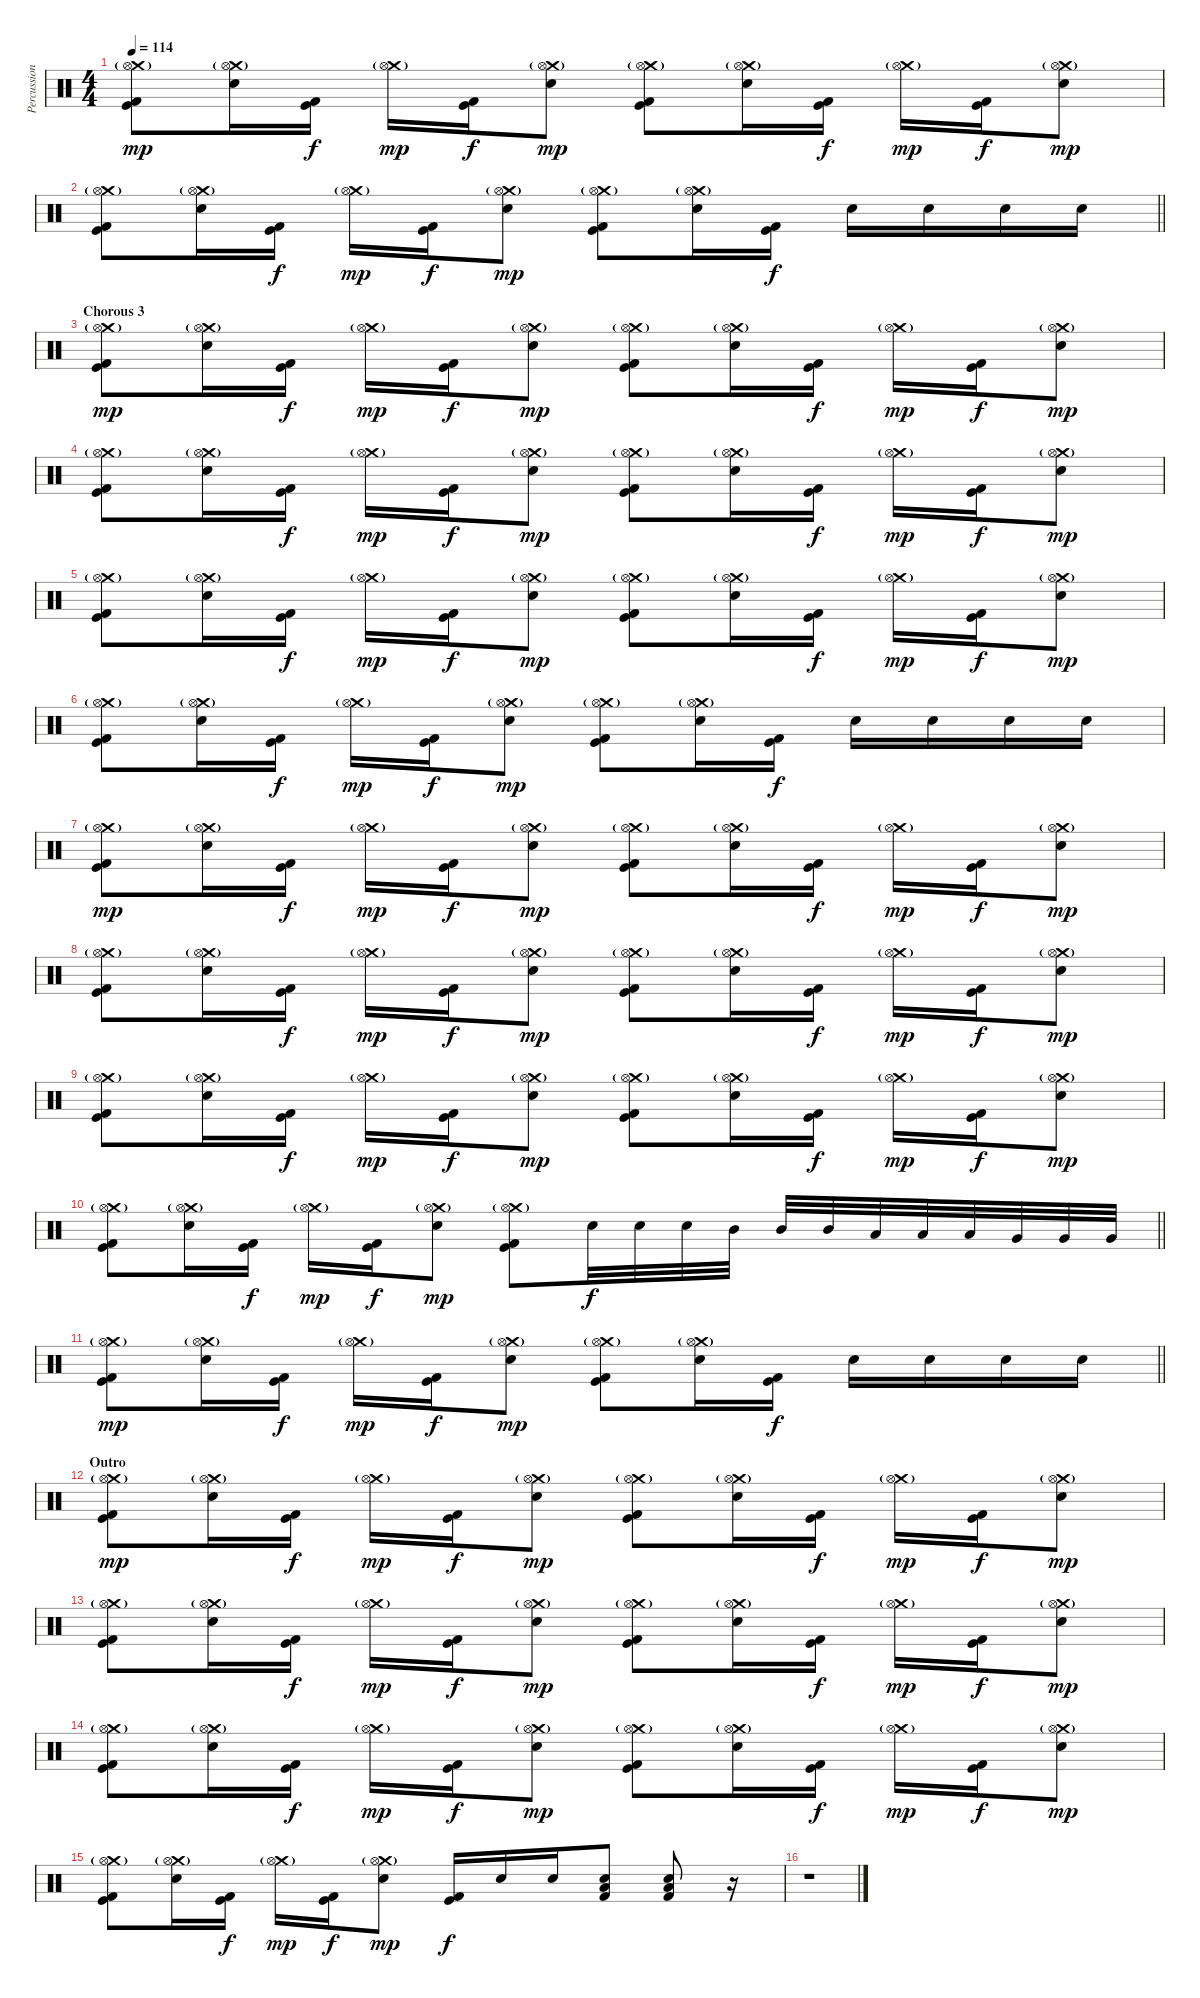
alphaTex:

\track ("Percussion" "Percussion") {instrument percussion}
\staff {score}
\articulation defaults
\ts (4 4)
\tempo 114
\clef neutral
\ks c
("Crash medium (hit)"{g} "Hi-Hat (open)" "Kick (hit)" "Kick (hit) 2").8{dy mp} ("Crash medium (hit)"{g} "Hi-Hat (open)" "Electric Snare (hit)").16 ("Kick (hit)" "Kick (hit) 2").16{dy f} ("Crash medium (hit)"{g} "Hi-Hat (open)").16{dy mp} ("Kick (hit)" "Kick (hit) 2").16{dy f} ("Crash medium (hit)"{g} "Hi-Hat (open)" "Electric Snare (hit)").8{dy mp} ("Crash medium (hit)"{g} "Hi-Hat (open)" "Kick (hit)" "Kick (hit) 2").8 ("Crash medium (hit)"{g} "Hi-Hat (open)" "Electric Snare (hit)").16 ("Kick (hit)" "Kick (hit) 2").16{dy f} ("Crash medium (hit)"{g} "Hi-Hat (open)").16{dy mp} ("Kick (hit)" "Kick (hit) 2").16{dy f} ("Crash medium (hit)"{g} "Hi-Hat (open)" "Electric Snare (hit)").8{dy mp} |
\barLineRight lightlight
("Crash medium (hit)"{g} "Hi-Hat (open)" "Kick (hit)" "Kick (hit) 2").8 ("Crash medium (hit)"{g} "Hi-Hat (open)" "Electric Snare (hit)").16 ("Kick (hit)" "Kick (hit) 2").16{dy f} ("Crash medium (hit)"{g} "Hi-Hat (open)").16{dy mp} ("Kick (hit)" "Kick (hit) 2").16{dy f} ("Crash medium (hit)"{g} "Hi-Hat (open)" "Electric Snare (hit)").8{dy mp} ("Crash medium (hit)"{g} "Hi-Hat (open)" "Kick (hit)" "Kick (hit) 2").8 ("Crash medium (hit)"{g} "Hi-Hat (open)" "Electric Snare (hit)").16 ("Kick (hit)" "Kick (hit) 2").16{dy f} "Electric Snare (hit)".16 "Electric Snare (hit)".16 "Electric Snare (hit)".16 "Electric Snare (hit)".16 |
\section ("" "Chorous 3")
("Crash medium (hit)"{g} "Hi-Hat (open)" "Kick (hit)" "Kick (hit) 2").8{dy mp} ("Crash medium (hit)"{g} "Hi-Hat (open)" "Electric Snare (hit)").16 ("Kick (hit)" "Kick (hit) 2").16{dy f} ("Crash medium (hit)"{g} "Hi-Hat (open)").16{dy mp} ("Kick (hit)" "Kick (hit) 2").16{dy f} ("Crash medium (hit)"{g} "Hi-Hat (open)" "Electric Snare (hit)").8{dy mp} ("Crash medium (hit)"{g} "Hi-Hat (open)" "Kick (hit)" "Kick (hit) 2").8 ("Crash medium (hit)"{g} "Hi-Hat (open)" "Electric Snare (hit)").16 ("Kick (hit)" "Kick (hit) 2").16{dy f} ("Crash medium (hit)"{g} "Hi-Hat (open)").16{dy mp} ("Kick (hit)" "Kick (hit) 2").16{dy f} ("Crash medium (hit)"{g} "Hi-Hat (open)" "Electric Snare (hit)").8{dy mp} |
("Crash medium (hit)"{g} "Hi-Hat (open)" "Kick (hit)" "Kick (hit) 2").8 ("Crash medium (hit)"{g} "Hi-Hat (open)" "Electric Snare (hit)").16 ("Kick (hit)" "Kick (hit) 2").16{dy f} ("Crash medium (hit)"{g} "Hi-Hat (open)").16{dy mp} ("Kick (hit)" "Kick (hit) 2").16{dy f} ("Crash medium (hit)"{g} "Hi-Hat (open)" "Electric Snare (hit)").8{dy mp} ("Crash medium (hit)"{g} "Hi-Hat (open)" "Kick (hit)" "Kick (hit) 2").8 ("Crash medium (hit)"{g} "Hi-Hat (open)" "Electric Snare (hit)").16 ("Kick (hit)" "Kick (hit) 2").16{dy f} ("Crash medium (hit)"{g} "Hi-Hat (open)").16{dy mp} ("Kick (hit)" "Kick (hit) 2").16{dy f} ("Crash medium (hit)"{g} "Hi-Hat (open)" "Electric Snare (hit)").8{dy mp} |
("Crash medium (hit)"{g} "Hi-Hat (open)" "Kick (hit)" "Kick (hit) 2").8 ("Crash medium (hit)"{g} "Hi-Hat (open)" "Electric Snare (hit)").16 ("Kick (hit)" "Kick (hit) 2").16{dy f} ("Crash medium (hit)"{g} "Hi-Hat (open)").16{dy mp} ("Kick (hit)" "Kick (hit) 2").16{dy f} ("Crash medium (hit)"{g} "Hi-Hat (open)" "Electric Snare (hit)").8{dy mp} ("Crash medium (hit)"{g} "Hi-Hat (open)" "Kick (hit)" "Kick (hit) 2").8 ("Crash medium (hit)"{g} "Hi-Hat (open)" "Electric Snare (hit)").16 ("Kick (hit)" "Kick (hit) 2").16{dy f} ("Crash medium (hit)"{g} "Hi-Hat (open)").16{dy mp} ("Kick (hit)" "Kick (hit) 2").16{dy f} ("Crash medium (hit)"{g} "Hi-Hat (open)" "Electric Snare (hit)").8{dy mp} |
("Crash medium (hit)"{g} "Hi-Hat (open)" "Kick (hit)" "Kick (hit) 2").8 ("Crash medium (hit)"{g} "Hi-Hat (open)" "Electric Snare (hit)").16 ("Kick (hit)" "Kick (hit) 2").16{dy f} ("Crash medium (hit)"{g} "Hi-Hat (open)").16{dy mp} ("Kick (hit)" "Kick (hit) 2").16{dy f} ("Crash medium (hit)"{g} "Hi-Hat (open)" "Electric Snare (hit)").8{dy mp} ("Crash medium (hit)"{g} "Hi-Hat (open)" "Kick (hit)" "Kick (hit) 2").8 ("Crash medium (hit)"{g} "Hi-Hat (open)" "Electric Snare (hit)").16 ("Kick (hit)" "Kick (hit) 2").16{dy f} "Electric Snare (hit)".16 "Electric Snare (hit)".16 "Electric Snare (hit)".16 "Electric Snare (hit)".16 |
("Crash medium (hit)"{g} "Hi-Hat (open)" "Kick (hit)" "Kick (hit) 2").8{dy mp} ("Crash medium (hit)"{g} "Hi-Hat (open)" "Electric Snare (hit)").16 ("Kick (hit)" "Kick (hit) 2").16{dy f} ("Crash medium (hit)"{g} "Hi-Hat (open)").16{dy mp} ("Kick (hit)" "Kick (hit) 2").16{dy f} ("Crash medium (hit)"{g} "Hi-Hat (open)" "Electric Snare (hit)").8{dy mp} ("Crash medium (hit)"{g} "Hi-Hat (open)" "Kick (hit)" "Kick (hit) 2").8 ("Crash medium (hit)"{g} "Hi-Hat (open)" "Electric Snare (hit)").16 ("Kick (hit)" "Kick (hit) 2").16{dy f} ("Crash medium (hit)"{g} "Hi-Hat (open)").16{dy mp} ("Kick (hit)" "Kick (hit) 2").16{dy f} ("Crash medium (hit)"{g} "Hi-Hat (open)" "Electric Snare (hit)").8{dy mp} |
("Crash medium (hit)"{g} "Hi-Hat (open)" "Kick (hit)" "Kick (hit) 2").8 ("Crash medium (hit)"{g} "Hi-Hat (open)" "Electric Snare (hit)").16 ("Kick (hit)" "Kick (hit) 2").16{dy f} ("Crash medium (hit)"{g} "Hi-Hat (open)").16{dy mp} ("Kick (hit)" "Kick (hit) 2").16{dy f} ("Crash medium (hit)"{g} "Hi-Hat (open)" "Electric Snare (hit)").8{dy mp} ("Crash medium (hit)"{g} "Hi-Hat (open)" "Kick (hit)" "Kick (hit) 2").8 ("Crash medium (hit)"{g} "Hi-Hat (open)" "Electric Snare (hit)").16 ("Kick (hit)" "Kick (hit) 2").16{dy f} ("Crash medium (hit)"{g} "Hi-Hat (open)").16{dy mp} ("Kick (hit)" "Kick (hit) 2").16{dy f} ("Crash medium (hit)"{g} "Hi-Hat (open)" "Electric Snare (hit)").8{dy mp} |
("Crash medium (hit)"{g} "Hi-Hat (open)" "Kick (hit)" "Kick (hit) 2").8 ("Crash medium (hit)"{g} "Hi-Hat (open)" "Electric Snare (hit)").16 ("Kick (hit)" "Kick (hit) 2").16{dy f} ("Crash medium (hit)"{g} "Hi-Hat (open)").16{dy mp} ("Kick (hit)" "Kick (hit) 2").16{dy f} ("Crash medium (hit)"{g} "Hi-Hat (open)" "Electric Snare (hit)").8{dy mp} ("Crash medium (hit)"{g} "Hi-Hat (open)" "Kick (hit)" "Kick (hit) 2").8 ("Crash medium (hit)"{g} "Hi-Hat (open)" "Electric Snare (hit)").16 ("Kick (hit)" "Kick (hit) 2").16{dy f} ("Crash medium (hit)"{g} "Hi-Hat (open)").16{dy mp} ("Kick (hit)" "Kick (hit) 2").16{dy f} ("Crash medium (hit)"{g} "Hi-Hat (open)" "Electric Snare (hit)").8{dy mp} |
\barLineRight lightlight
("Crash medium (hit)"{g} "Hi-Hat (open)" "Kick (hit)" "Kick (hit) 2").8 ("Crash medium (hit)"{g} "Hi-Hat (open)" "Electric Snare (hit)").16 ("Kick (hit)" "Kick (hit) 2").16{dy f} ("Crash medium (hit)"{g} "Hi-Hat (open)").16{dy mp} ("Kick (hit)" "Kick (hit) 2").16{dy f} ("Crash medium (hit)"{g} "Hi-Hat (open)" "Electric Snare (hit)").8{dy mp} ("Crash medium (hit)"{g} "Hi-Hat (open)" "Kick (hit)" "Kick (hit) 2").8 "Electric Snare (hit)".32{dy f} "Electric Snare (hit)".32 "Electric Snare (hit)".32 "Mid Tom (hit)".32 "Mid Tom (hit)".32 "Mid Tom (hit)".32 "Low Tom (hit)".32 "Low Tom (hit)".32 "Low Tom (hit)".32 "Very Low Tom (hit)".32 "Very Low Tom (hit)".32 "Very Low Tom (hit)".32 |
\section ("" "")
\barLineRight lightlight
("Crash medium (hit)"{g} "Hi-Hat (open)" "Kick (hit)" "Kick (hit) 2").8{dy mp} ("Crash medium (hit)"{g} "Hi-Hat (open)" "Electric Snare (hit)").16 ("Kick (hit)" "Kick (hit) 2").16{dy f} ("Crash medium (hit)"{g} "Hi-Hat (open)").16{dy mp} ("Kick (hit)" "Kick (hit) 2").16{dy f} ("Crash medium (hit)"{g} "Hi-Hat (open)" "Electric Snare (hit)").8{dy mp} ("Crash medium (hit)"{g} "Hi-Hat (open)" "Kick (hit)" "Kick (hit) 2").8 ("Crash medium (hit)"{g} "Hi-Hat (open)" "Electric Snare (hit)").16 ("Kick (hit)" "Kick (hit) 2").16{dy f} "Electric Snare (hit)".16 "Electric Snare (hit)".16 "Electric Snare (hit)".16 "Electric Snare (hit)".16 |
\section ("" "Outro")
("Crash medium (hit)"{g} "Hi-Hat (open)" "Kick (hit)" "Kick (hit) 2").8{dy mp} ("Crash medium (hit)"{g} "Hi-Hat (open)" "Electric Snare (hit)").16 ("Kick (hit)" "Kick (hit) 2").16{dy f} ("Crash medium (hit)"{g} "Hi-Hat (open)").16{dy mp} ("Kick (hit)" "Kick (hit) 2").16{dy f} ("Crash medium (hit)"{g} "Hi-Hat (open)" "Electric Snare (hit)").8{dy mp} ("Crash medium (hit)"{g} "Hi-Hat (open)" "Kick (hit)" "Kick (hit) 2").8 ("Crash medium (hit)"{g} "Hi-Hat (open)" "Electric Snare (hit)").16 ("Kick (hit)" "Kick (hit) 2").16{dy f} ("Crash medium (hit)"{g} "Hi-Hat (open)").16{dy mp} ("Kick (hit)" "Kick (hit) 2").16{dy f} ("Crash medium (hit)"{g} "Hi-Hat (open)" "Electric Snare (hit)").8{dy mp} |
("Crash medium (hit)"{g} "Hi-Hat (open)" "Kick (hit)" "Kick (hit) 2").8 ("Crash medium (hit)"{g} "Hi-Hat (open)" "Electric Snare (hit)").16 ("Kick (hit)" "Kick (hit) 2").16{dy f} ("Crash medium (hit)"{g} "Hi-Hat (open)").16{dy mp} ("Kick (hit)" "Kick (hit) 2").16{dy f} ("Crash medium (hit)"{g} "Hi-Hat (open)" "Electric Snare (hit)").8{dy mp} ("Crash medium (hit)"{g} "Hi-Hat (open)" "Kick (hit)" "Kick (hit) 2").8 ("Crash medium (hit)"{g} "Hi-Hat (open)" "Electric Snare (hit)").16 ("Kick (hit)" "Kick (hit) 2").16{dy f} ("Crash medium (hit)"{g} "Hi-Hat (open)").16{dy mp} ("Kick (hit)" "Kick (hit) 2").16{dy f} ("Crash medium (hit)"{g} "Hi-Hat (open)" "Electric Snare (hit)").8{dy mp} |
("Crash medium (hit)"{g} "Hi-Hat (open)" "Kick (hit)" "Kick (hit) 2").8 ("Crash medium (hit)"{g} "Hi-Hat (open)" "Electric Snare (hit)").16 ("Kick (hit)" "Kick (hit) 2").16{dy f} ("Crash medium (hit)"{g} "Hi-Hat (open)").16{dy mp} ("Kick (hit)" "Kick (hit) 2").16{dy f} ("Crash medium (hit)"{g} "Hi-Hat (open)" "Electric Snare (hit)").8{dy mp} ("Crash medium (hit)"{g} "Hi-Hat (open)" "Kick (hit)" "Kick (hit) 2").8 ("Crash medium (hit)"{g} "Hi-Hat (open)" "Electric Snare (hit)").16 ("Kick (hit)" "Kick (hit) 2").16{dy f} ("Crash medium (hit)"{g} "Hi-Hat (open)").16{dy mp} ("Kick (hit)" "Kick (hit) 2").16{dy f} ("Crash medium (hit)"{g} "Hi-Hat (open)" "Electric Snare (hit)").8{dy mp} |
("Crash medium (hit)"{g} "Hi-Hat (open)" "Kick (hit)" "Kick (hit) 2").8 ("Crash medium (hit)"{g} "Hi-Hat (open)" "Electric Snare (hit)").16 ("Kick (hit)" "Kick (hit) 2").16{dy f} ("Crash medium (hit)"{g} "Hi-Hat (open)").16{dy mp} ("Kick (hit)" "Kick (hit) 2").16{dy f} ("Crash medium (hit)"{g} "Hi-Hat (open)" "Electric Snare (hit)").8{dy mp} ("Kick (hit)" "Kick (hit) 2").16{dy f} "Electric Snare (hit)".16 "Electric Snare (hit)".16 ("Electric Snare (hit)" "Low Floor Tom (hit)" "Kick (hit) 2").8 ("Electric Snare (hit)" "Low Floor Tom (hit)" "Kick (hit) 2").8 r.16 |
r.1
